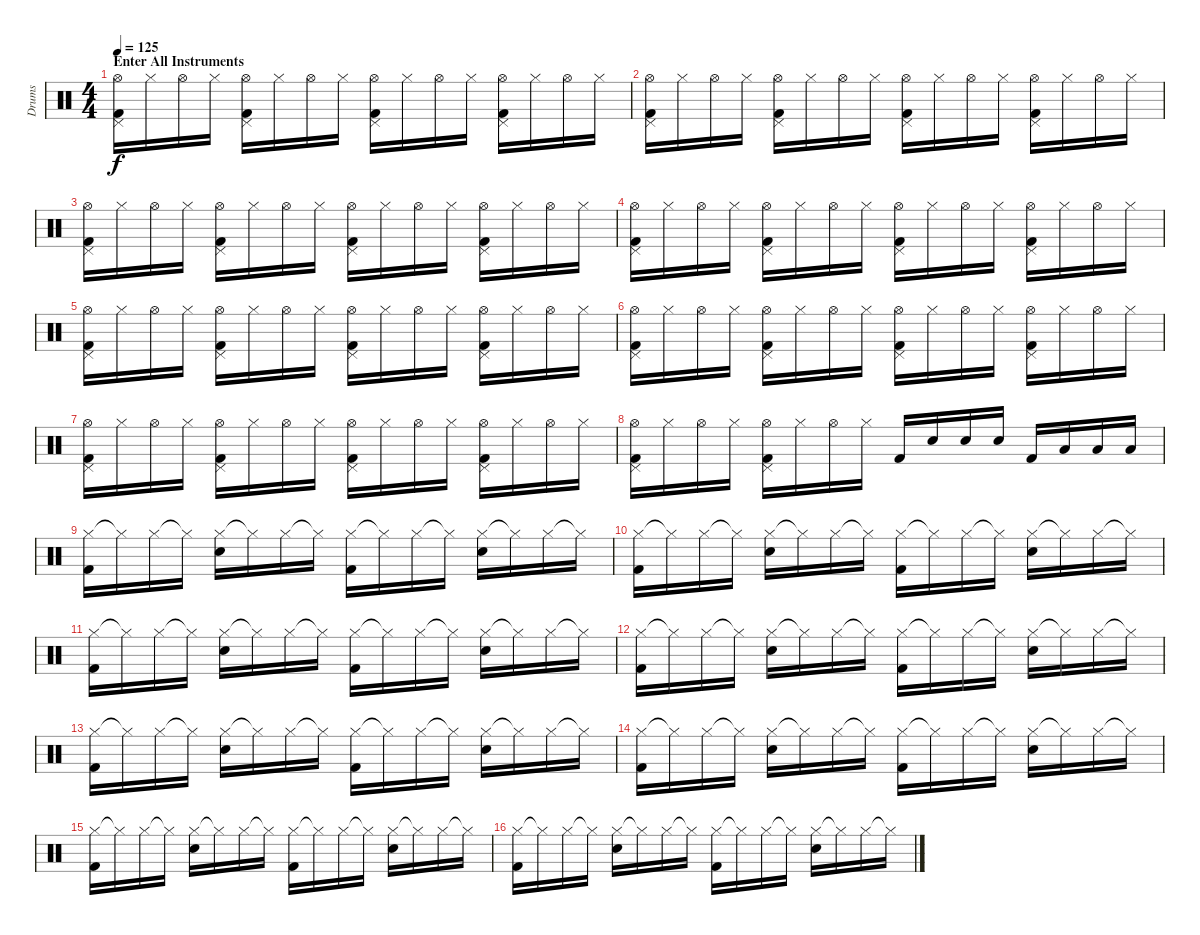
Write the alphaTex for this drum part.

\track ("Drums" "Drums") {instrument percussion}
\staff {score}
\articulation defaults
\ts (4 4)
\section ("" "Enter All Instruments")
\tempo 125
\clef neutral
\ks c
("Hi-Hat (open)" "Kick (hit) 2" "Pedal Hi-Hat (hit)").16{dy f} "Hi-Hat (closed)".16 "Hi-Hat (open)".16 "Hi-Hat (closed)".16 ("Hi-Hat (open)" "Kick (hit) 2" "Pedal Hi-Hat (hit)").16 "Hi-Hat (closed)".16 "Hi-Hat (open)".16 "Hi-Hat (closed)".16 ("Hi-Hat (open)" "Kick (hit) 2" "Pedal Hi-Hat (hit)").16 "Hi-Hat (closed)".16 "Hi-Hat (open)".16 "Hi-Hat (closed)".16 ("Hi-Hat (open)" "Kick (hit) 2" "Pedal Hi-Hat (hit)").16 "Hi-Hat (closed)".16 "Hi-Hat (open)".16 "Hi-Hat (closed)".16 |
\section ("" "")
("Hi-Hat (open)" "Kick (hit) 2" "Pedal Hi-Hat (hit)").16 "Hi-Hat (closed)".16 "Hi-Hat (open)".16 "Hi-Hat (closed)".16 ("Hi-Hat (open)" "Kick (hit) 2" "Pedal Hi-Hat (hit)").16 "Hi-Hat (closed)".16 "Hi-Hat (open)".16 "Hi-Hat (closed)".16 ("Hi-Hat (open)" "Kick (hit) 2" "Pedal Hi-Hat (hit)").16 "Hi-Hat (closed)".16 "Hi-Hat (open)".16 "Hi-Hat (closed)".16 ("Hi-Hat (open)" "Kick (hit) 2" "Pedal Hi-Hat (hit)").16 "Hi-Hat (closed)".16 "Hi-Hat (open)".16 "Hi-Hat (closed)".16 |
("Hi-Hat (open)" "Kick (hit) 2" "Pedal Hi-Hat (hit)").16 "Hi-Hat (closed)".16 "Hi-Hat (open)".16 "Hi-Hat (closed)".16 ("Hi-Hat (open)" "Kick (hit) 2" "Pedal Hi-Hat (hit)").16 "Hi-Hat (closed)".16 "Hi-Hat (open)".16 "Hi-Hat (closed)".16 ("Hi-Hat (open)" "Kick (hit) 2" "Pedal Hi-Hat (hit)").16 "Hi-Hat (closed)".16 "Hi-Hat (open)".16 "Hi-Hat (closed)".16 ("Hi-Hat (open)" "Kick (hit) 2" "Pedal Hi-Hat (hit)").16 "Hi-Hat (closed)".16 "Hi-Hat (open)".16 "Hi-Hat (closed)".16 |
("Hi-Hat (open)" "Kick (hit) 2" "Pedal Hi-Hat (hit)").16 "Hi-Hat (closed)".16 "Hi-Hat (open)".16 "Hi-Hat (closed)".16 ("Hi-Hat (open)" "Kick (hit) 2" "Pedal Hi-Hat (hit)").16 "Hi-Hat (closed)".16 "Hi-Hat (open)".16 "Hi-Hat (closed)".16 ("Hi-Hat (open)" "Kick (hit) 2" "Pedal Hi-Hat (hit)").16 "Hi-Hat (closed)".16 "Hi-Hat (open)".16 "Hi-Hat (closed)".16 ("Hi-Hat (open)" "Kick (hit) 2" "Pedal Hi-Hat (hit)").16 "Hi-Hat (closed)".16 "Hi-Hat (open)".16 "Hi-Hat (closed)".16 |
("Hi-Hat (open)" "Kick (hit) 2" "Pedal Hi-Hat (hit)").16 "Hi-Hat (closed)".16 "Hi-Hat (open)".16 "Hi-Hat (closed)".16 ("Hi-Hat (open)" "Kick (hit) 2" "Pedal Hi-Hat (hit)").16 "Hi-Hat (closed)".16 "Hi-Hat (open)".16 "Hi-Hat (closed)".16 ("Hi-Hat (open)" "Kick (hit) 2" "Pedal Hi-Hat (hit)").16 "Hi-Hat (closed)".16 "Hi-Hat (open)".16 "Hi-Hat (closed)".16 ("Hi-Hat (open)" "Kick (hit) 2" "Pedal Hi-Hat (hit)").16 "Hi-Hat (closed)".16 "Hi-Hat (open)".16 "Hi-Hat (closed)".16 |
("Hi-Hat (open)" "Kick (hit) 2" "Pedal Hi-Hat (hit)").16 "Hi-Hat (closed)".16 "Hi-Hat (open)".16 "Hi-Hat (closed)".16 ("Hi-Hat (open)" "Kick (hit) 2" "Pedal Hi-Hat (hit)").16 "Hi-Hat (closed)".16 "Hi-Hat (open)".16 "Hi-Hat (closed)".16 ("Hi-Hat (open)" "Kick (hit) 2" "Pedal Hi-Hat (hit)").16 "Hi-Hat (closed)".16 "Hi-Hat (open)".16 "Hi-Hat (closed)".16 ("Hi-Hat (open)" "Kick (hit) 2" "Pedal Hi-Hat (hit)").16 "Hi-Hat (closed)".16 "Hi-Hat (open)".16 "Hi-Hat (closed)".16 |
("Hi-Hat (open)" "Kick (hit) 2" "Pedal Hi-Hat (hit)").16 "Hi-Hat (closed)".16 "Hi-Hat (open)".16 "Hi-Hat (closed)".16 ("Hi-Hat (open)" "Kick (hit) 2" "Pedal Hi-Hat (hit)").16 "Hi-Hat (closed)".16 "Hi-Hat (open)".16 "Hi-Hat (closed)".16 ("Hi-Hat (open)" "Kick (hit) 2" "Pedal Hi-Hat (hit)").16 "Hi-Hat (closed)".16 "Hi-Hat (open)".16 "Hi-Hat (closed)".16 ("Hi-Hat (open)" "Kick (hit) 2" "Pedal Hi-Hat (hit)").16 "Hi-Hat (closed)".16 "Hi-Hat (open)".16 "Hi-Hat (closed)".16 |
("Hi-Hat (open)" "Kick (hit) 2" "Pedal Hi-Hat (hit)").16 "Hi-Hat (closed)".16 "Hi-Hat (open)".16 "Hi-Hat (closed)".16 ("Hi-Hat (open)" "Kick (hit) 2" "Pedal Hi-Hat (hit)").16 "Hi-Hat (closed)".16 "Hi-Hat (open)".16 "Hi-Hat (closed)".16 "Kick (hit) 2".16 "Snare (hit) 2".16 "Snare (hit) 2".16 "Snare (hit) 2".16 "Kick (hit) 2".16 "Low Tom (hit)".16 "Low Tom (hit)".16 "Low Tom (hit)".16 |
("Hi-Hat (closed)" "Kick (hit) 2").16 "Hi-Hat (closed)"{t}.16 "Hi-Hat (closed)".16 "Hi-Hat (closed)"{t}.16 ("Hi-Hat (closed)" "Snare (hit) 2").16 "Hi-Hat (closed)"{t}.16 "Hi-Hat (closed)".16 "Hi-Hat (closed)"{t}.16 ("Hi-Hat (closed)" "Kick (hit) 2").16 "Hi-Hat (closed)"{t}.16 "Hi-Hat (closed)".16 "Hi-Hat (closed)"{t}.16 ("Hi-Hat (closed)" "Snare (hit) 2").16 "Hi-Hat (closed)"{t}.16 "Hi-Hat (closed)".16 "Hi-Hat (closed)"{t}.16 |
("Hi-Hat (closed)" "Kick (hit) 2").16 "Hi-Hat (closed)"{t}.16 "Hi-Hat (closed)".16 "Hi-Hat (closed)"{t}.16 ("Hi-Hat (closed)" "Snare (hit) 2").16 "Hi-Hat (closed)"{t}.16 "Hi-Hat (closed)".16 "Hi-Hat (closed)"{t}.16 ("Hi-Hat (closed)" "Kick (hit) 2").16 "Hi-Hat (closed)"{t}.16 "Hi-Hat (closed)".16 "Hi-Hat (closed)"{t}.16 ("Hi-Hat (closed)" "Snare (hit) 2").16 "Hi-Hat (closed)"{t}.16 "Hi-Hat (closed)".16 "Hi-Hat (closed)"{t}.16 |
("Hi-Hat (closed)" "Kick (hit) 2").16 "Hi-Hat (closed)"{t}.16 "Hi-Hat (closed)".16 "Hi-Hat (closed)"{t}.16 ("Hi-Hat (closed)" "Snare (hit) 2").16 "Hi-Hat (closed)"{t}.16 "Hi-Hat (closed)".16 "Hi-Hat (closed)"{t}.16 ("Hi-Hat (closed)" "Kick (hit) 2").16 "Hi-Hat (closed)"{t}.16 "Hi-Hat (closed)".16 "Hi-Hat (closed)"{t}.16 ("Hi-Hat (closed)" "Snare (hit) 2").16 "Hi-Hat (closed)"{t}.16 "Hi-Hat (closed)".16 "Hi-Hat (closed)"{t}.16 |
("Hi-Hat (closed)" "Kick (hit) 2").16 "Hi-Hat (closed)"{t}.16 "Hi-Hat (closed)".16 "Hi-Hat (closed)"{t}.16 ("Hi-Hat (closed)" "Snare (hit) 2").16 "Hi-Hat (closed)"{t}.16 "Hi-Hat (closed)".16 "Hi-Hat (closed)"{t}.16 ("Hi-Hat (closed)" "Kick (hit) 2").16 "Hi-Hat (closed)"{t}.16 "Hi-Hat (closed)".16 "Hi-Hat (closed)"{t}.16 ("Hi-Hat (closed)" "Snare (hit) 2").16 "Hi-Hat (closed)"{t}.16 "Hi-Hat (closed)".16 "Hi-Hat (closed)"{t}.16 |
("Hi-Hat (closed)" "Kick (hit) 2").16 "Hi-Hat (closed)"{t}.16 "Hi-Hat (closed)".16 "Hi-Hat (closed)"{t}.16 ("Hi-Hat (closed)" "Snare (hit) 2").16 "Hi-Hat (closed)"{t}.16 "Hi-Hat (closed)".16 "Hi-Hat (closed)"{t}.16 ("Hi-Hat (closed)" "Kick (hit) 2").16 "Hi-Hat (closed)"{t}.16 "Hi-Hat (closed)".16 "Hi-Hat (closed)"{t}.16 ("Hi-Hat (closed)" "Snare (hit) 2").16 "Hi-Hat (closed)"{t}.16 "Hi-Hat (closed)".16 "Hi-Hat (closed)"{t}.16 |
("Hi-Hat (closed)" "Kick (hit) 2").16 "Hi-Hat (closed)"{t}.16 "Hi-Hat (closed)".16 "Hi-Hat (closed)"{t}.16 ("Hi-Hat (closed)" "Snare (hit) 2").16 "Hi-Hat (closed)"{t}.16 "Hi-Hat (closed)".16 "Hi-Hat (closed)"{t}.16 ("Hi-Hat (closed)" "Kick (hit) 2").16 "Hi-Hat (closed)"{t}.16 "Hi-Hat (closed)".16 "Hi-Hat (closed)"{t}.16 ("Hi-Hat (closed)" "Snare (hit) 2").16 "Hi-Hat (closed)"{t}.16 "Hi-Hat (closed)".16 "Hi-Hat (closed)"{t}.16 |
("Hi-Hat (closed)" "Kick (hit) 2").16 "Hi-Hat (closed)"{t}.16 "Hi-Hat (closed)".16 "Hi-Hat (closed)"{t}.16 ("Hi-Hat (closed)" "Snare (hit) 2").16 "Hi-Hat (closed)"{t}.16 "Hi-Hat (closed)".16 "Hi-Hat (closed)"{t}.16 ("Hi-Hat (closed)" "Kick (hit) 2").16 "Hi-Hat (closed)"{t}.16 "Hi-Hat (closed)".16 "Hi-Hat (closed)"{t}.16 ("Hi-Hat (closed)" "Snare (hit) 2").16 "Hi-Hat (closed)"{t}.16 "Hi-Hat (closed)".16 "Hi-Hat (closed)"{t}.16 |
("Hi-Hat (closed)" "Kick (hit) 2").16 "Hi-Hat (closed)"{t}.16 "Hi-Hat (closed)".16 "Hi-Hat (closed)"{t}.16 ("Hi-Hat (closed)" "Snare (hit) 2").16 "Hi-Hat (closed)"{t}.16 "Hi-Hat (closed)".16 "Hi-Hat (closed)"{t}.16 ("Hi-Hat (closed)" "Kick (hit) 2").16 "Hi-Hat (closed)"{t}.16 "Hi-Hat (closed)".16 "Hi-Hat (closed)"{t}.16 ("Hi-Hat (closed)" "Snare (hit) 2").16 "Hi-Hat (closed)"{t}.16 "Hi-Hat (closed)".16 "Hi-Hat (closed)"{t}.16
